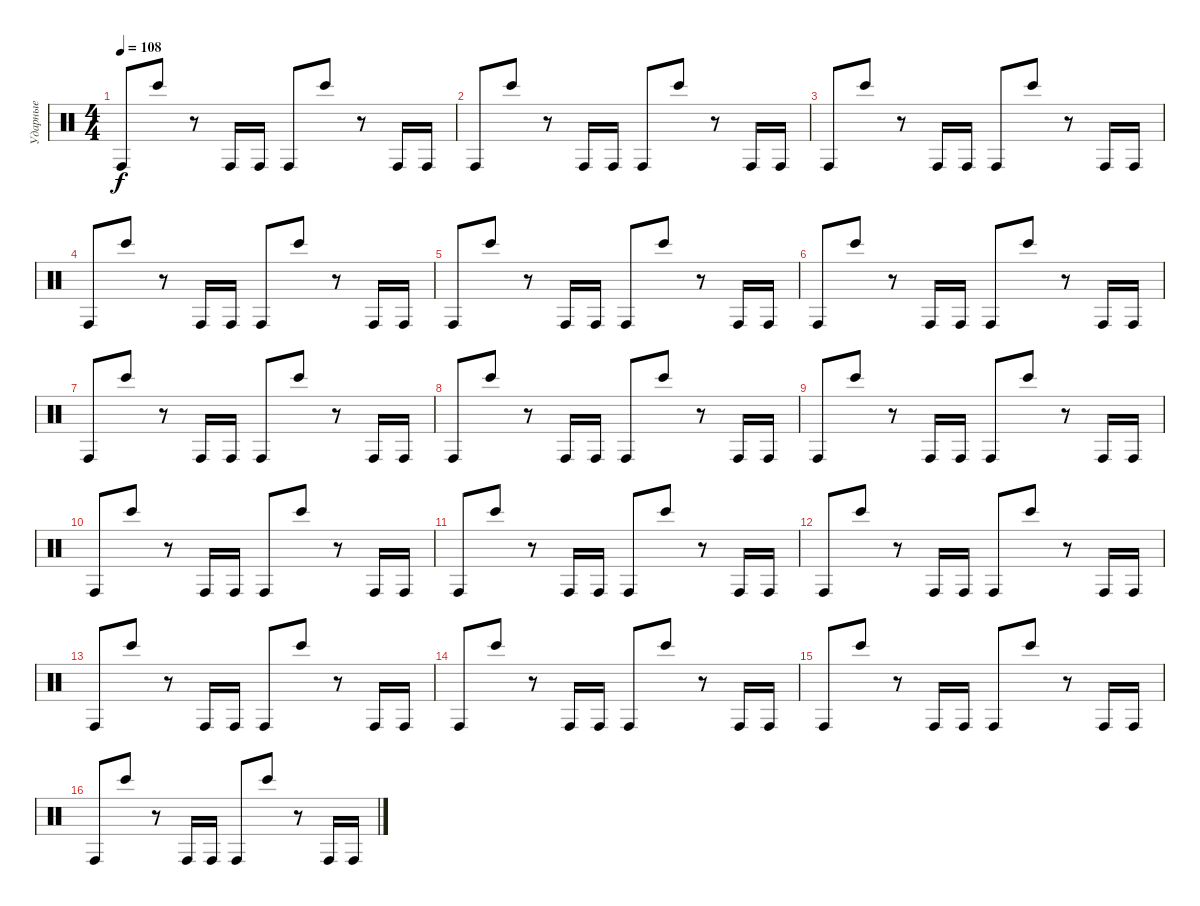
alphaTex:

\track ("Ударные" "Ударные") {instrument percussion}
\staff {score}
\articulation defaults
\ts (4 4)
\tempo 108
\clef neutral
\ks c "Conga high (hit)".8{dy f} "Bongo High (hit)".8
r.8 "Conga high (hit)".16 "Conga high (hit)".16 "Conga high (hit)".8 "Bongo High (hit)".8 r.8 "Conga high (hit)".16 "Conga high (hit)".16 |
"Conga high (hit)".8 "Bongo High (hit)".8 r.8 "Conga high (hit)".16 "Conga high (hit)".16 "Conga high (hit)".8 "Bongo High (hit)".8 r.8 "Conga high (hit)".16 "Conga high (hit)".16 |
"Conga high (hit)".8 "Bongo High (hit)".8 r.8 "Conga high (hit)".16 "Conga high (hit)".16 "Conga high (hit)".8 "Bongo High (hit)".8 r.8 "Conga high (hit)".16 "Conga high (hit)".16 |
"Conga high (hit)".8 "Bongo High (hit)".8 r.8 "Conga high (hit)".16 "Conga high (hit)".16 "Conga high (hit)".8 "Bongo High (hit)".8 r.8 "Conga high (hit)".16 "Conga high (hit)".16 |
"Conga high (hit)".8 "Bongo High (hit)".8 r.8 "Conga high (hit)".16 "Conga high (hit)".16 "Conga high (hit)".8 "Bongo High (hit)".8 r.8 "Conga high (hit)".16 "Conga high (hit)".16 |
"Conga high (hit)".8 "Bongo High (hit)".8 r.8 "Conga high (hit)".16 "Conga high (hit)".16 "Conga high (hit)".8 "Bongo High (hit)".8 r.8 "Conga high (hit)".16 "Conga high (hit)".16 |
"Conga high (hit)".8 "Bongo High (hit)".8 r.8 "Conga high (hit)".16 "Conga high (hit)".16 "Conga high (hit)".8 "Bongo High (hit)".8 r.8 "Conga high (hit)".16 "Conga high (hit)".16 |
"Conga high (hit)".8 "Bongo High (hit)".8 r.8 "Conga high (hit)".16 "Conga high (hit)".16 "Conga high (hit)".8 "Bongo High (hit)".8 r.8 "Conga high (hit)".16 "Conga high (hit)".16 |
"Conga high (hit)".8 "Bongo High (hit)".8 r.8 "Conga high (hit)".16 "Conga high (hit)".16 "Conga high (hit)".8 "Bongo High (hit)".8 r.8 "Conga high (hit)".16 "Conga high (hit)".16 |
"Conga high (hit)".8 "Bongo High (hit)".8 r.8 "Conga high (hit)".16 "Conga high (hit)".16 "Conga high (hit)".8 "Bongo High (hit)".8 r.8 "Conga high (hit)".16 "Conga high (hit)".16 |
"Conga high (hit)".8 "Bongo High (hit)".8 r.8 "Conga high (hit)".16 "Conga high (hit)".16 "Conga high (hit)".8 "Bongo High (hit)".8 r.8 "Conga high (hit)".16 "Conga high (hit)".16 |
"Conga high (hit)".8 "Bongo High (hit)".8 r.8 "Conga high (hit)".16 "Conga high (hit)".16 "Conga high (hit)".8 "Bongo High (hit)".8 r.8 "Conga high (hit)".16 "Conga high (hit)".16 |
"Conga high (hit)".8 "Bongo High (hit)".8 r.8 "Conga high (hit)".16 "Conga high (hit)".16 "Conga high (hit)".8 "Bongo High (hit)".8 r.8 "Conga high (hit)".16 "Conga high (hit)".16 |
"Conga high (hit)".8 "Bongo High (hit)".8 r.8 "Conga high (hit)".16 "Conga high (hit)".16 "Conga high (hit)".8 "Bongo High (hit)".8 r.8 "Conga high (hit)".16 "Conga high (hit)".16 |
"Conga high (hit)".8 "Bongo High (hit)".8 r.8 "Conga high (hit)".16 "Conga high (hit)".16 "Conga high (hit)".8 "Bongo High (hit)".8 r.8 "Conga high (hit)".16 "Conga high (hit)".16 |
"Conga high (hit)".8 "Bongo High (hit)".8 r.8 "Conga high (hit)".16 "Conga high (hit)".16 "Conga high (hit)".8 "Bongo High (hit)".8 r.8 "Conga high (hit)".16 "Conga high (hit)".16
